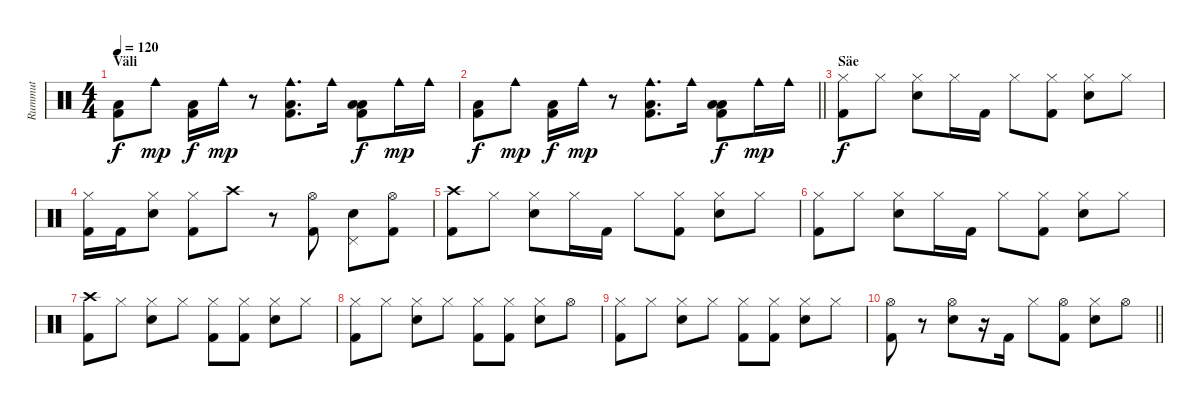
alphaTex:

\track ("Rummut" "Rummut") {instrument percussion}
\staff {score}
\articulation defaults
\ts (4 4)
\section ("" "Väli")
\tempo 120
\clef neutral
\ks c
("Low Tom (hit)" "Kick (hit) 2").8{dy f} "Cowbell medium (hit)".8{dy mp} ("Low Tom (hit)" "Kick (hit) 2").16{dy f} "Cowbell medium (hit)".16{dy mp} r.8 ("Cowbell medium (hit)" "Low Tom (hit)" "Kick (hit) 2").8{d} "Cowbell medium (hit)".16 ("Low Tom (hit)" "Low Tom (hit)" "Kick (hit) 2").8{dy f} "Cowbell medium (hit)".16{dy mp} "Cowbell medium (hit)".16 |
\barLineRight lightlight
("Low Tom (hit)" "Kick (hit) 2").8{dy f} "Cowbell medium (hit)".8{dy mp} ("Low Tom (hit)" "Kick (hit) 2").16{dy f} "Cowbell medium (hit)".16{dy mp} r.8 ("Cowbell medium (hit)" "Low Tom (hit)" "Kick (hit) 2").8{d} "Cowbell medium (hit)".16 ("Low Tom (hit)" "Low Tom (hit)" "Kick (hit) 2").8{dy f} "Cowbell medium (hit)".16{dy mp} "Cowbell medium (hit)".16 |
\section ("" "Säe")
("Hi-Hat (closed)" "Kick (hit) 2").8{dy f} "Hi-Hat (closed)".8 ("Hi-Hat (closed)" "Snare (hit) 2").8 "Hi-Hat (closed)".16 "Kick (hit) 2".16 "Hi-Hat (closed)".8 ("Hi-Hat (closed)" "Kick (hit) 2").8 ("Hi-Hat (closed)" "Snare (hit) 2").8 "Hi-Hat (closed)".8 |
("Hi-Hat (closed)" "Kick (hit) 2").16 "Kick (hit) 2".16 ("Hi-Hat (closed)" "Snare (hit) 2").8 ("Hi-Hat (closed)" "Kick (hit) 2").8 "Crash high (hit)".8 r.8 ("Hi-Hat (open)" "Kick (hit) 2").8 ("Pedal Hi-Hat (hit)" "Snare (hit) 2").8 ("Hi-Hat (open)" "Kick (hit) 2").8 |
("Crash high (hit)" "Kick (hit) 2").8 "Hi-Hat (closed)".8 ("Hi-Hat (closed)" "Snare (hit) 2").8 "Hi-Hat (closed)".16 "Kick (hit) 2".16 "Hi-Hat (closed)".8 ("Hi-Hat (closed)" "Kick (hit) 2").8 ("Hi-Hat (closed)" "Snare (hit) 2").8 "Hi-Hat (closed)".8 |
("Hi-Hat (closed)" "Kick (hit) 2").8 "Hi-Hat (closed)".8 ("Hi-Hat (closed)" "Snare (hit) 2").8 "Hi-Hat (closed)".16 "Kick (hit) 2".16 "Hi-Hat (closed)".8 ("Hi-Hat (closed)" "Kick (hit) 2").8 ("Hi-Hat (closed)" "Snare (hit) 2").8 "Hi-Hat (closed)".8 |
("Crash high (hit)" "Kick (hit) 2").8 "Hi-Hat (closed)".8 ("Hi-Hat (closed)" "Snare (hit) 2").8 "Hi-Hat (closed)".8 ("Hi-Hat (closed)" "Kick (hit) 2").8 ("Hi-Hat (closed)" "Kick (hit) 2").8 ("Hi-Hat (closed)" "Snare (hit) 2").8 "Hi-Hat (closed)".8 |
("Hi-Hat (closed)" "Kick (hit) 2").8 "Hi-Hat (closed)".8 ("Hi-Hat (closed)" "Snare (hit) 2").8 "Hi-Hat (closed)".8 ("Hi-Hat (closed)" "Kick (hit) 2").8 ("Hi-Hat (closed)" "Kick (hit) 2").8 ("Hi-Hat (closed)" "Snare (hit) 2").8 "Hi-Hat (open)".8 |
("Hi-Hat (closed)" "Kick (hit) 2").8 "Hi-Hat (closed)".8 ("Hi-Hat (closed)" "Snare (hit) 2").8 "Hi-Hat (closed)".8 ("Hi-Hat (closed)" "Kick (hit) 2").8 ("Hi-Hat (closed)" "Kick (hit) 2").8 ("Hi-Hat (closed)" "Snare (hit) 2").8 "Hi-Hat (closed)".8 |
\barLineRight lightlight
("Hi-Hat (open)" "Kick (hit) 2").8 r.8 ("Hi-Hat (open)" "Snare (hit) 2").8 r.16 "Kick (hit) 2".16 "Hi-Hat (closed)".8 ("Hi-Hat (open)" "Kick (hit) 2").8 ("Hi-Hat (closed)" "Snare (hit) 2").8 "Hi-Hat (open)".8
